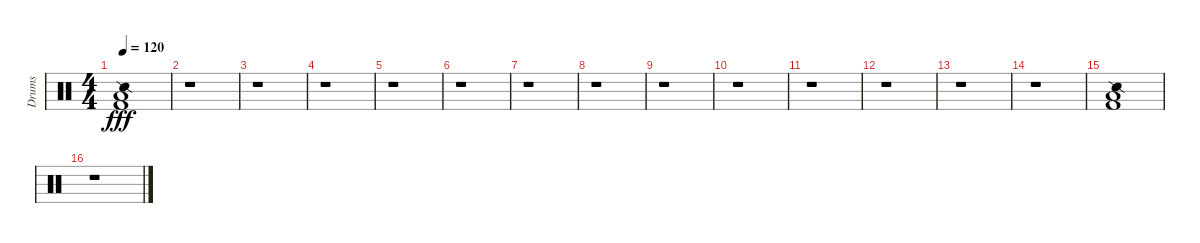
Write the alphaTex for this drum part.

\track ("Drums" "Drums") {instrument percussion}
\staff {score}
\articulation defaults
\ts (4 4)
\tempo 120
\clef neutral
\ks c
("Snare (side stick) 2" "Low Floor Tom (hit)" "Kick (hit) 2").1{dy fff} |
r.1 |
r.1 |
r.1 |
r.1 |
r.1 |
r.1 |
r.1 |
r.1 |
r.1 |
r.1 |
r.1 |
r.1 |
r.1 |
("Snare (side stick) 2" "Low Floor Tom (hit)" "Kick (hit) 2").1 |
r.1
